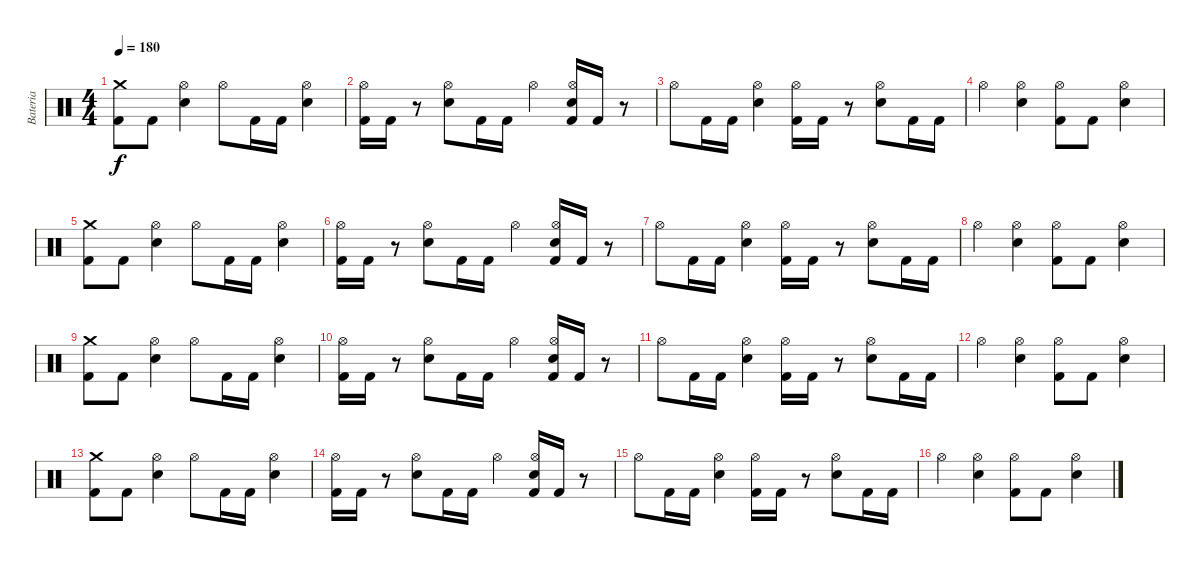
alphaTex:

\track ("Bateria" "Bateria") {instrument percussion}
\staff {score}
\articulation defaults
\ts (4 4)
\tempo 180
\clef neutral
\ks c
("Crash medium (hit)" "Kick (hit) 2").8{dy f} "Kick (hit) 2".8 ("Hi-Hat (open)" "Electric Snare (hit)").4 "Hi-Hat (open)".8 "Kick (hit) 2".16 "Kick (hit) 2".16 ("Hi-Hat (open)" "Electric Snare (hit)").4 |
("Hi-Hat (open)" "Kick (hit) 2").16 "Kick (hit) 2".16 r.8 ("Hi-Hat (open)" "Electric Snare (hit)").8 "Kick (hit) 2".16 "Kick (hit) 2".16 "Hi-Hat (open)".4 ("Hi-Hat (open)" "Electric Snare (hit)" "Kick (hit) 2").16 "Kick (hit) 2".16 r.8 |
"Hi-Hat (open)".8 "Kick (hit) 2".16 "Kick (hit) 2".16 ("Hi-Hat (open)" "Electric Snare (hit)").4 ("Hi-Hat (open)" "Kick (hit) 2").16 "Kick (hit) 2".16 r.8 ("Hi-Hat (open)" "Electric Snare (hit)").8 "Kick (hit) 2".16 "Kick (hit) 2".16 |
"Hi-Hat (open)".4 ("Hi-Hat (open)" "Electric Snare (hit)").4 ("Hi-Hat (open)" "Kick (hit) 2").8 "Kick (hit) 2".8 ("Hi-Hat (open)" "Electric Snare (hit)").4 |
("Crash medium (hit)" "Kick (hit) 2").8 "Kick (hit) 2".8 ("Hi-Hat (open)" "Electric Snare (hit)").4 "Hi-Hat (open)".8 "Kick (hit) 2".16 "Kick (hit) 2".16 ("Hi-Hat (open)" "Electric Snare (hit)").4 |
("Hi-Hat (open)" "Kick (hit) 2").16 "Kick (hit) 2".16 r.8 ("Hi-Hat (open)" "Electric Snare (hit)").8 "Kick (hit) 2".16 "Kick (hit) 2".16 "Hi-Hat (open)".4 ("Hi-Hat (open)" "Electric Snare (hit)" "Kick (hit) 2").16 "Kick (hit) 2".16 r.8 |
"Hi-Hat (open)".8 "Kick (hit) 2".16 "Kick (hit) 2".16 ("Hi-Hat (open)" "Electric Snare (hit)").4 ("Hi-Hat (open)" "Kick (hit) 2").16 "Kick (hit) 2".16 r.8 ("Hi-Hat (open)" "Electric Snare (hit)").8 "Kick (hit) 2".16 "Kick (hit) 2".16 |
"Hi-Hat (open)".4 ("Hi-Hat (open)" "Electric Snare (hit)").4 ("Hi-Hat (open)" "Kick (hit) 2").8 "Kick (hit) 2".8 ("Hi-Hat (open)" "Electric Snare (hit)").4 |
("Crash medium (hit)" "Kick (hit) 2").8 "Kick (hit) 2".8 ("Hi-Hat (open)" "Electric Snare (hit)").4 "Hi-Hat (open)".8 "Kick (hit) 2".16 "Kick (hit) 2".16 ("Hi-Hat (open)" "Electric Snare (hit)").4 |
("Hi-Hat (open)" "Kick (hit) 2").16 "Kick (hit) 2".16 r.8 ("Hi-Hat (open)" "Electric Snare (hit)").8 "Kick (hit) 2".16 "Kick (hit) 2".16 "Hi-Hat (open)".4 ("Hi-Hat (open)" "Electric Snare (hit)" "Kick (hit) 2").16 "Kick (hit) 2".16 r.8 |
"Hi-Hat (open)".8 "Kick (hit) 2".16 "Kick (hit) 2".16 ("Hi-Hat (open)" "Electric Snare (hit)").4 ("Hi-Hat (open)" "Kick (hit) 2").16 "Kick (hit) 2".16 r.8 ("Hi-Hat (open)" "Electric Snare (hit)").8 "Kick (hit) 2".16 "Kick (hit) 2".16 |
"Hi-Hat (open)".4 ("Hi-Hat (open)" "Electric Snare (hit)").4 ("Hi-Hat (open)" "Kick (hit) 2").8 "Kick (hit) 2".8 ("Hi-Hat (open)" "Electric Snare (hit)").4 |
("Crash medium (hit)" "Kick (hit) 2").8 "Kick (hit) 2".8 ("Hi-Hat (open)" "Electric Snare (hit)").4 "Hi-Hat (open)".8 "Kick (hit) 2".16 "Kick (hit) 2".16 ("Hi-Hat (open)" "Electric Snare (hit)").4 |
("Hi-Hat (open)" "Kick (hit) 2").16 "Kick (hit) 2".16 r.8 ("Hi-Hat (open)" "Electric Snare (hit)").8 "Kick (hit) 2".16 "Kick (hit) 2".16 "Hi-Hat (open)".4 ("Hi-Hat (open)" "Electric Snare (hit)" "Kick (hit) 2").16 "Kick (hit) 2".16 r.8 |
"Hi-Hat (open)".8 "Kick (hit) 2".16 "Kick (hit) 2".16 ("Hi-Hat (open)" "Electric Snare (hit)").4 ("Hi-Hat (open)" "Kick (hit) 2").16 "Kick (hit) 2".16 r.8 ("Hi-Hat (open)" "Electric Snare (hit)").8 "Kick (hit) 2".16 "Kick (hit) 2".16 |
"Hi-Hat (open)".4 ("Hi-Hat (open)" "Electric Snare (hit)").4 ("Hi-Hat (open)" "Kick (hit) 2").8 "Kick (hit) 2".8 ("Hi-Hat (open)" "Electric Snare (hit)").4
